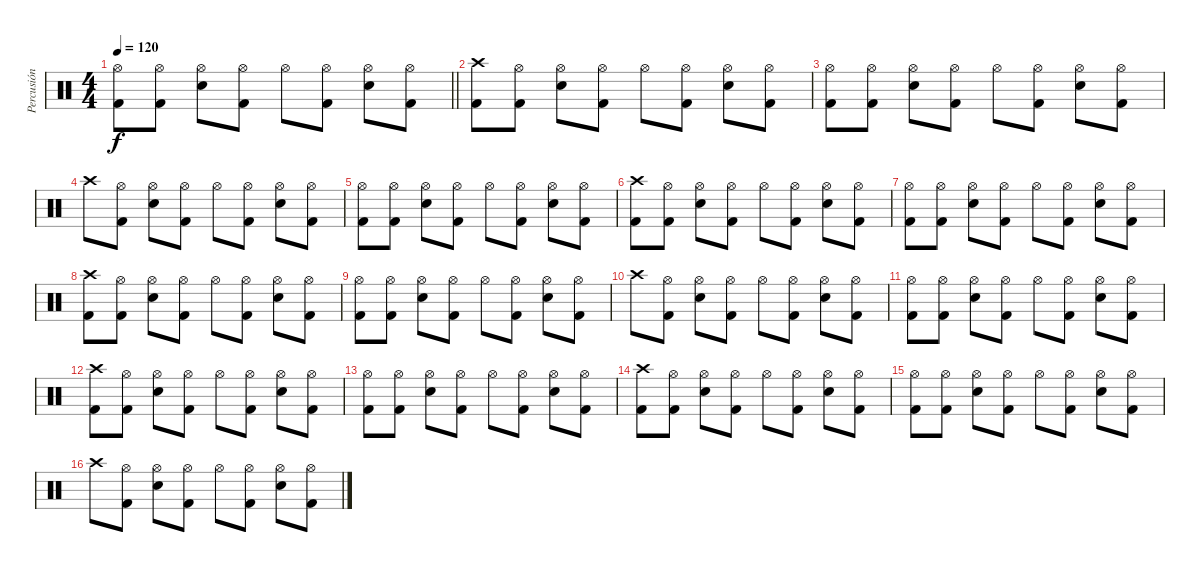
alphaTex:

\track ("Percusión" "Percusión") {instrument percussion}
\staff {score}
\articulation defaults
\ts (4 4)
\tempo 120
\clef neutral
\barLineRight lightlight
\ks c
("Hi-Hat (open)" "Kick (hit) 2").8{dy f} ("Hi-Hat (open)" "Kick (hit) 2").8 ("Hi-Hat (open)" "Snare (hit) 2").8 ("Hi-Hat (open)" "Kick (hit) 2").8 "Hi-Hat (open)".8 ("Hi-Hat (open)" "Kick (hit) 2").8 ("Hi-Hat (open)" "Snare (hit) 2").8 ("Hi-Hat (open)" "Kick (hit) 2").8 |
("Crash high (hit)" "Kick (hit) 2").8 ("Hi-Hat (open)" "Kick (hit) 2").8 ("Hi-Hat (open)" "Snare (hit) 2").8 ("Hi-Hat (open)" "Kick (hit) 2").8 "Hi-Hat (open)".8 ("Hi-Hat (open)" "Kick (hit) 2").8 ("Hi-Hat (open)" "Snare (hit) 2").8 ("Hi-Hat (open)" "Kick (hit) 2").8 |
("Hi-Hat (open)" "Kick (hit) 2").8 ("Hi-Hat (open)" "Kick (hit) 2").8 ("Hi-Hat (open)" "Snare (hit) 2").8 ("Hi-Hat (open)" "Kick (hit) 2").8 "Hi-Hat (open)".8 ("Hi-Hat (open)" "Kick (hit) 2").8 ("Hi-Hat (open)" "Snare (hit) 2").8 ("Hi-Hat (open)" "Kick (hit) 2").8 |
"Crash high (hit)".8 ("Hi-Hat (open)" "Kick (hit) 2").8 ("Hi-Hat (open)" "Snare (hit) 2").8 ("Hi-Hat (open)" "Kick (hit) 2").8 "Hi-Hat (open)".8 ("Hi-Hat (open)" "Kick (hit) 2").8 ("Hi-Hat (open)" "Snare (hit) 2").8 ("Hi-Hat (open)" "Kick (hit) 2").8 |
("Hi-Hat (open)" "Kick (hit) 2").8 ("Hi-Hat (open)" "Kick (hit) 2").8 ("Hi-Hat (open)" "Snare (hit) 2").8 ("Hi-Hat (open)" "Kick (hit) 2").8 "Hi-Hat (open)".8 ("Hi-Hat (open)" "Kick (hit) 2").8 ("Hi-Hat (open)" "Snare (hit) 2").8 ("Hi-Hat (open)" "Kick (hit) 2").8 |
("Crash high (hit)" "Kick (hit) 2").8 ("Hi-Hat (open)" "Kick (hit) 2").8 ("Hi-Hat (open)" "Snare (hit) 2").8 ("Hi-Hat (open)" "Kick (hit) 2").8 "Hi-Hat (open)".8 ("Hi-Hat (open)" "Kick (hit) 2").8 ("Hi-Hat (open)" "Snare (hit) 2").8 ("Hi-Hat (open)" "Kick (hit) 2").8 |
("Hi-Hat (open)" "Kick (hit) 2").8 ("Hi-Hat (open)" "Kick (hit) 2").8 ("Hi-Hat (open)" "Snare (hit) 2").8 ("Hi-Hat (open)" "Kick (hit) 2").8 "Hi-Hat (open)".8 ("Hi-Hat (open)" "Kick (hit) 2").8 ("Hi-Hat (open)" "Snare (hit) 2").8 ("Hi-Hat (open)" "Kick (hit) 2").8 |
("Crash high (hit)" "Kick (hit) 2").8 ("Hi-Hat (open)" "Kick (hit) 2").8 ("Hi-Hat (open)" "Snare (hit) 2").8 ("Hi-Hat (open)" "Kick (hit) 2").8 "Hi-Hat (open)".8 ("Hi-Hat (open)" "Kick (hit) 2").8 ("Hi-Hat (open)" "Snare (hit) 2").8 ("Hi-Hat (open)" "Kick (hit) 2").8 |
("Hi-Hat (open)" "Kick (hit) 2").8 ("Hi-Hat (open)" "Kick (hit) 2").8 ("Hi-Hat (open)" "Snare (hit) 2").8 ("Hi-Hat (open)" "Kick (hit) 2").8 "Hi-Hat (open)".8 ("Hi-Hat (open)" "Kick (hit) 2").8 ("Hi-Hat (open)" "Snare (hit) 2").8 ("Hi-Hat (open)" "Kick (hit) 2").8 |
"Crash high (hit)".8 ("Hi-Hat (open)" "Kick (hit) 2").8 ("Hi-Hat (open)" "Snare (hit) 2").8 ("Hi-Hat (open)" "Kick (hit) 2").8 "Hi-Hat (open)".8 ("Hi-Hat (open)" "Kick (hit) 2").8 ("Hi-Hat (open)" "Snare (hit) 2").8 ("Hi-Hat (open)" "Kick (hit) 2").8 |
("Hi-Hat (open)" "Kick (hit) 2").8 ("Hi-Hat (open)" "Kick (hit) 2").8 ("Hi-Hat (open)" "Snare (hit) 2").8 ("Hi-Hat (open)" "Kick (hit) 2").8 "Hi-Hat (open)".8 ("Hi-Hat (open)" "Kick (hit) 2").8 ("Hi-Hat (open)" "Snare (hit) 2").8 ("Hi-Hat (open)" "Kick (hit) 2").8 |
("Crash high (hit)" "Kick (hit) 2").8 ("Hi-Hat (open)" "Kick (hit) 2").8 ("Hi-Hat (open)" "Snare (hit) 2").8 ("Hi-Hat (open)" "Kick (hit) 2").8 "Hi-Hat (open)".8 ("Hi-Hat (open)" "Kick (hit) 2").8 ("Hi-Hat (open)" "Snare (hit) 2").8 ("Hi-Hat (open)" "Kick (hit) 2").8 |
("Hi-Hat (open)" "Kick (hit) 2").8 ("Hi-Hat (open)" "Kick (hit) 2").8 ("Hi-Hat (open)" "Snare (hit) 2").8 ("Hi-Hat (open)" "Kick (hit) 2").8 "Hi-Hat (open)".8 ("Hi-Hat (open)" "Kick (hit) 2").8 ("Hi-Hat (open)" "Snare (hit) 2").8 ("Hi-Hat (open)" "Kick (hit) 2").8 |
("Crash high (hit)" "Kick (hit) 2").8 ("Hi-Hat (open)" "Kick (hit) 2").8 ("Hi-Hat (open)" "Snare (hit) 2").8 ("Hi-Hat (open)" "Kick (hit) 2").8 "Hi-Hat (open)".8 ("Hi-Hat (open)" "Kick (hit) 2").8 ("Hi-Hat (open)" "Snare (hit) 2").8 ("Hi-Hat (open)" "Kick (hit) 2").8 |
("Hi-Hat (open)" "Kick (hit) 2").8 ("Hi-Hat (open)" "Kick (hit) 2").8 ("Hi-Hat (open)" "Snare (hit) 2").8 ("Hi-Hat (open)" "Kick (hit) 2").8 "Hi-Hat (open)".8 ("Hi-Hat (open)" "Kick (hit) 2").8 ("Hi-Hat (open)" "Snare (hit) 2").8 ("Hi-Hat (open)" "Kick (hit) 2").8 |
"Crash high (hit)".8 ("Hi-Hat (open)" "Kick (hit) 2").8 ("Hi-Hat (open)" "Snare (hit) 2").8 ("Hi-Hat (open)" "Kick (hit) 2").8 "Hi-Hat (open)".8 ("Hi-Hat (open)" "Kick (hit) 2").8 ("Hi-Hat (open)" "Snare (hit) 2").8 ("Hi-Hat (open)" "Kick (hit) 2").8
